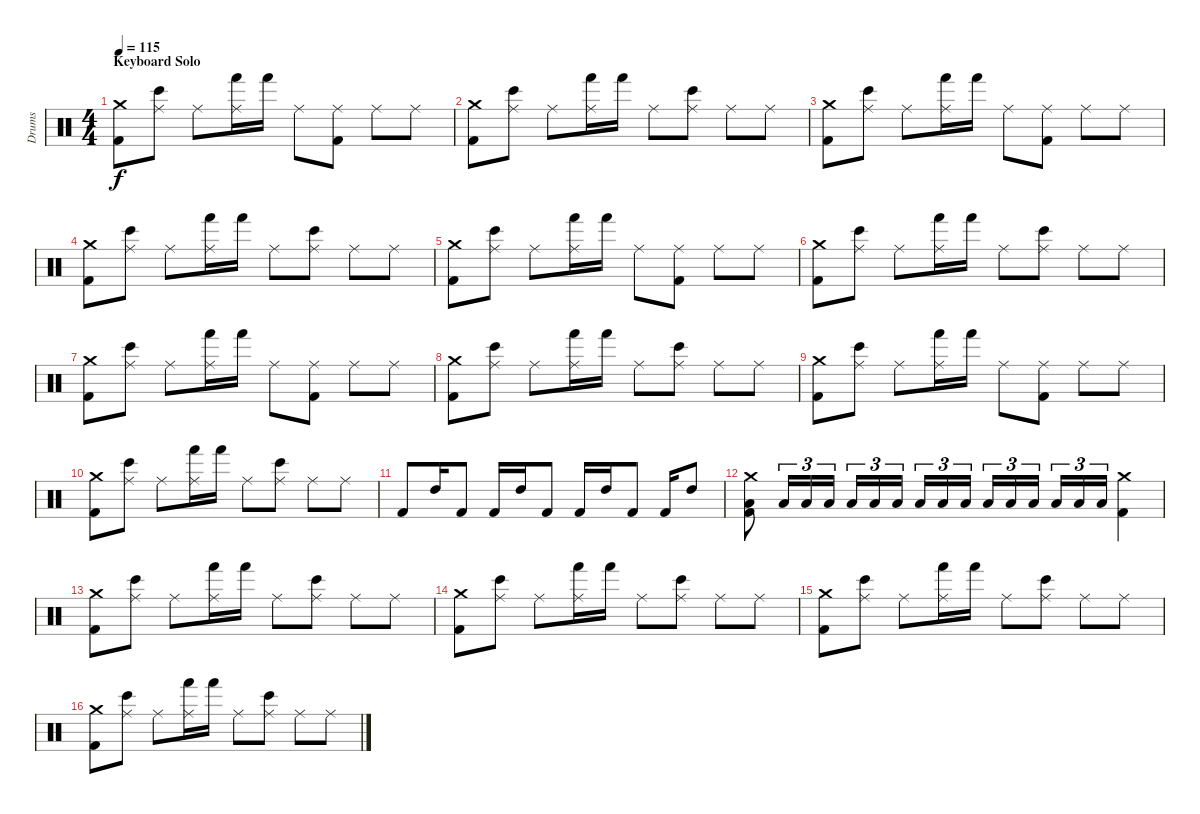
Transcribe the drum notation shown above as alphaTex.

\track ("Drums" "Drums") {instrument percussion}
\staff {score}
\articulation defaults
\ts (4 4)
\section ("" "Keyboard Solo")
\tempo 115
\clef neutral
\ks c
("Crash medium (hit)" "Kick (hit) 2").8{dy f} ("Ride (middle)" "Bongo High (hit)").8 "Ride (middle)".8 ("Ride (middle)" "Hand (hit)").16 "Hand (hit)".16 "Ride (middle)".8 ("Ride (middle)" "Kick (hit) 2").8 "Ride (middle)".8 "Ride (middle)".8 |
("Crash medium (hit)" "Kick (hit) 2").8 ("Ride (middle)" "Bongo High (hit)").8 "Ride (middle)".8 ("Ride (middle)" "Hand (hit)").16 "Hand (hit)".16 "Ride (middle)".8 ("Ride (middle)" "Bongo High (hit)").8 "Ride (middle)".8 "Ride (middle)".8 |
("Crash medium (hit)" "Kick (hit) 2").8 ("Ride (middle)" "Bongo High (hit)").8 "Ride (middle)".8 ("Ride (middle)" "Hand (hit)").16 "Hand (hit)".16 "Ride (middle)".8 ("Ride (middle)" "Kick (hit) 2").8 "Ride (middle)".8 "Ride (middle)".8 |
("Crash medium (hit)" "Kick (hit) 2").8 ("Ride (middle)" "Bongo High (hit)").8 "Ride (middle)".8 ("Ride (middle)" "Hand (hit)").16 "Hand (hit)".16 "Ride (middle)".8 ("Ride (middle)" "Bongo High (hit)").8 "Ride (middle)".8 "Ride (middle)".8 |
("Crash medium (hit)" "Kick (hit) 2").8 ("Ride (middle)" "Bongo High (hit)").8 "Ride (middle)".8 ("Ride (middle)" "Hand (hit)").16 "Hand (hit)".16 "Ride (middle)".8 ("Ride (middle)" "Kick (hit) 2").8 "Ride (middle)".8 "Ride (middle)".8 |
("Crash medium (hit)" "Kick (hit) 2").8 ("Ride (middle)" "Bongo High (hit)").8 "Ride (middle)".8 ("Ride (middle)" "Hand (hit)").16 "Hand (hit)".16 "Ride (middle)".8 ("Ride (middle)" "Bongo High (hit)").8 "Ride (middle)".8 "Ride (middle)".8 |
("Crash medium (hit)" "Kick (hit) 2").8 ("Ride (middle)" "Bongo High (hit)").8 "Ride (middle)".8 ("Ride (middle)" "Hand (hit)").16 "Hand (hit)".16 "Ride (middle)".8 ("Ride (middle)" "Kick (hit) 2").8 "Ride (middle)".8 "Ride (middle)".8 |
("Crash medium (hit)" "Kick (hit) 2").8 ("Ride (middle)" "Bongo High (hit)").8 "Ride (middle)".8 ("Ride (middle)" "Hand (hit)").16 "Hand (hit)".16 "Ride (middle)".8 ("Ride (middle)" "Bongo High (hit)").8 "Ride (middle)".8 "Ride (middle)".8 |
("Crash medium (hit)" "Kick (hit) 2").8 ("Ride (middle)" "Bongo High (hit)").8 "Ride (middle)".8 ("Ride (middle)" "Hand (hit)").16 "Hand (hit)".16 "Ride (middle)".8 ("Ride (middle)" "Kick (hit) 2").8 "Ride (middle)".8 "Ride (middle)".8 |
("Crash medium (hit)" "Kick (hit) 2").8 ("Ride (middle)" "Bongo High (hit)").8 "Ride (middle)".8 ("Ride (middle)" "Hand (hit)").16 "Hand (hit)".16 "Ride (middle)".8 ("Ride (middle)" "Bongo High (hit)").8 "Ride (middle)".8 "Ride (middle)".8 |
"Kick (hit) 2".8 "High Tom (hit)".16 "Kick (hit) 2".8 "Kick (hit) 2".16 "High Tom (hit)".16 "Kick (hit) 2".8 "Kick (hit) 2".16 "High Tom (hit)".16 "Kick (hit) 2".8 "Kick (hit) 2".16 "High Tom (hit)".8 |
("Crash medium (hit)" "Low Tom (hit)" "Kick (hit) 2").8 "Low Tom (hit)".16{tu (3 2)} "Low Tom (hit)".16{tu (3 2)} "Low Tom (hit)".16{tu (3 2)} "Low Tom (hit)".16{tu (3 2)} "Low Tom (hit)".16{tu (3 2)} "Low Tom (hit)".16{tu (3 2) beam splitsecondary} "Low Tom (hit)".16{tu (3 2)} "Low Tom (hit)".16{tu (3 2)} "Low Tom (hit)".16{tu (3 2)} "Low Tom (hit)".16{tu (3 2)} "Low Tom (hit)".16{tu (3 2)} "Low Tom (hit)".16{tu (3 2) beam splitsecondary} "Low Tom (hit)".16{tu (3 2)} "Low Tom (hit)".16{tu (3 2)} "Low Tom (hit)".16{tu (3 2)} ("Crash medium (hit)" "Kick (hit) 2").4 |
("Crash medium (hit)" "Kick (hit) 2").8 ("Ride (middle)" "Bongo High (hit)").8 "Ride (middle)".8 ("Ride (middle)" "Hand (hit)").16 "Hand (hit)".16 "Ride (middle)".8 ("Ride (middle)" "Bongo High (hit)").8 "Ride (middle)".8 "Ride (middle)".8 |
("Crash medium (hit)" "Kick (hit) 2").8 ("Ride (middle)" "Bongo High (hit)").8 "Ride (middle)".8 ("Ride (middle)" "Hand (hit)").16 "Hand (hit)".16 "Ride (middle)".8 ("Ride (middle)" "Bongo High (hit)").8 "Ride (middle)".8 "Ride (middle)".8 |
("Crash medium (hit)" "Kick (hit) 2").8 ("Ride (middle)" "Bongo High (hit)").8 "Ride (middle)".8 ("Ride (middle)" "Hand (hit)").16 "Hand (hit)".16 "Ride (middle)".8 ("Ride (middle)" "Bongo High (hit)").8 "Ride (middle)".8 "Ride (middle)".8 |
("Crash medium (hit)" "Kick (hit) 2").8 ("Ride (middle)" "Bongo High (hit)").8 "Ride (middle)".8 ("Ride (middle)" "Hand (hit)").16 "Hand (hit)".16 "Ride (middle)".8 ("Ride (middle)" "Bongo High (hit)").8 "Ride (middle)".8 "Ride (middle)".8
